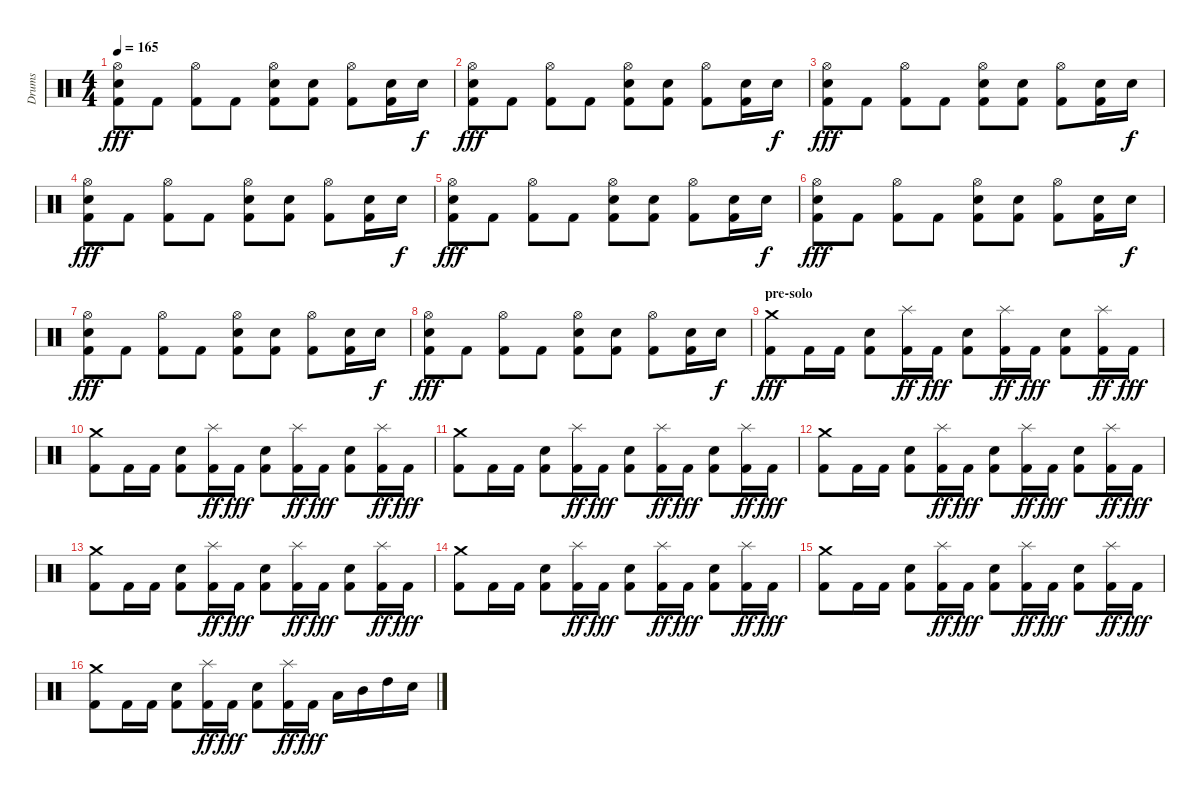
\track ("Drums" "Drums") {instrument percussion}
\staff {score}
\articulation defaults
\ts (4 4)
\tempo 165
\clef neutral
\ks c
("Hi-Hat (open)" "Electric Snare (hit)" "Kick (hit) 2").8{dy fff} "Kick (hit) 2".8 ("Hi-Hat (open)" "Kick (hit) 2").8 "Kick (hit) 2".8 ("Hi-Hat (open)" "Electric Snare (hit)" "Kick (hit) 2").8 ("Electric Snare (hit)" "Kick (hit) 2").8 ("Hi-Hat (open)" "Kick (hit) 2").8 ("Electric Snare (hit)" "Kick (hit) 2").16 "Electric Snare (hit)".16{dy f} |
("Hi-Hat (open)" "Electric Snare (hit)" "Kick (hit) 2").8{dy fff} "Kick (hit) 2".8 ("Hi-Hat (open)" "Kick (hit) 2").8 "Kick (hit) 2".8 ("Hi-Hat (open)" "Electric Snare (hit)" "Kick (hit) 2").8 ("Electric Snare (hit)" "Kick (hit) 2").8 ("Hi-Hat (open)" "Kick (hit) 2").8 ("Electric Snare (hit)" "Kick (hit) 2").16 "Electric Snare (hit)".16{dy f} |
("Hi-Hat (open)" "Electric Snare (hit)" "Kick (hit) 2").8{dy fff} "Kick (hit) 2".8 ("Hi-Hat (open)" "Kick (hit) 2").8 "Kick (hit) 2".8 ("Hi-Hat (open)" "Electric Snare (hit)" "Kick (hit) 2").8 ("Electric Snare (hit)" "Kick (hit) 2").8 ("Hi-Hat (open)" "Kick (hit) 2").8 ("Electric Snare (hit)" "Kick (hit) 2").16 "Electric Snare (hit)".16{dy f} |
("Hi-Hat (open)" "Electric Snare (hit)" "Kick (hit) 2").8{dy fff} "Kick (hit) 2".8 ("Hi-Hat (open)" "Kick (hit) 2").8 "Kick (hit) 2".8 ("Hi-Hat (open)" "Electric Snare (hit)" "Kick (hit) 2").8 ("Electric Snare (hit)" "Kick (hit) 2").8 ("Hi-Hat (open)" "Kick (hit) 2").8 ("Electric Snare (hit)" "Kick (hit) 2").16 "Electric Snare (hit)".16{dy f} |
("Hi-Hat (open)" "Electric Snare (hit)" "Kick (hit) 2").8{dy fff} "Kick (hit) 2".8 ("Hi-Hat (open)" "Kick (hit) 2").8 "Kick (hit) 2".8 ("Hi-Hat (open)" "Electric Snare (hit)" "Kick (hit) 2").8 ("Electric Snare (hit)" "Kick (hit) 2").8 ("Hi-Hat (open)" "Kick (hit) 2").8 ("Electric Snare (hit)" "Kick (hit) 2").16 "Electric Snare (hit)".16{dy f} |
("Hi-Hat (open)" "Electric Snare (hit)" "Kick (hit) 2").8{dy fff} "Kick (hit) 2".8 ("Hi-Hat (open)" "Kick (hit) 2").8 "Kick (hit) 2".8 ("Hi-Hat (open)" "Electric Snare (hit)" "Kick (hit) 2").8 ("Electric Snare (hit)" "Kick (hit) 2").8 ("Hi-Hat (open)" "Kick (hit) 2").8 ("Electric Snare (hit)" "Kick (hit) 2").16 "Electric Snare (hit)".16{dy f} |
("Hi-Hat (open)" "Electric Snare (hit)" "Kick (hit) 2").8{dy fff} "Kick (hit) 2".8 ("Hi-Hat (open)" "Kick (hit) 2").8 "Kick (hit) 2".8 ("Hi-Hat (open)" "Electric Snare (hit)" "Kick (hit) 2").8 ("Electric Snare (hit)" "Kick (hit) 2").8 ("Hi-Hat (open)" "Kick (hit) 2").8 ("Electric Snare (hit)" "Kick (hit) 2").16 "Electric Snare (hit)".16{dy f} |
("Hi-Hat (open)" "Electric Snare (hit)" "Kick (hit) 2").8{dy fff} "Kick (hit) 2".8 ("Hi-Hat (open)" "Kick (hit) 2").8 "Kick (hit) 2".8 ("Hi-Hat (open)" "Electric Snare (hit)" "Kick (hit) 2").8 ("Electric Snare (hit)" "Kick (hit) 2").8 ("Hi-Hat (open)" "Kick (hit) 2").8 ("Electric Snare (hit)" "Kick (hit) 2").16 "Electric Snare (hit)".16{dy f} |
\section ("" "pre-solo")
("Kick (hit) 2" "Crash medium (hit)").8{dy fff} "Kick (hit) 2".16 "Kick (hit) 2".16 ("Kick (hit) 2" "Electric Snare (hit)").8 ("Kick (hit) 2" "Splash (hit)").16{dy ff} "Kick (hit) 2".16{dy fff} ("Kick (hit) 2" "Electric Snare (hit)").8 ("Kick (hit) 2" "Splash (hit)").16{dy ff} "Kick (hit) 2".16{dy fff} ("Kick (hit) 2" "Electric Snare (hit)").8 ("Kick (hit) 2" "Splash (hit)").16{dy ff} "Kick (hit) 2".16{dy fff} |
("Kick (hit) 2" "Crash medium (hit)").8 "Kick (hit) 2".16 "Kick (hit) 2".16 ("Kick (hit) 2" "Electric Snare (hit)").8 ("Kick (hit) 2" "Splash (hit)").16{dy ff} "Kick (hit) 2".16{dy fff} ("Kick (hit) 2" "Electric Snare (hit)").8 ("Kick (hit) 2" "Splash (hit)").16{dy ff} "Kick (hit) 2".16{dy fff} ("Kick (hit) 2" "Electric Snare (hit)").8 ("Kick (hit) 2" "Splash (hit)").16{dy ff} "Kick (hit) 2".16{dy fff} |
("Kick (hit) 2" "Crash medium (hit)").8 "Kick (hit) 2".16 "Kick (hit) 2".16 ("Kick (hit) 2" "Electric Snare (hit)").8 ("Kick (hit) 2" "Splash (hit)").16{dy ff} "Kick (hit) 2".16{dy fff} ("Kick (hit) 2" "Electric Snare (hit)").8 ("Kick (hit) 2" "Splash (hit)").16{dy ff} "Kick (hit) 2".16{dy fff} ("Kick (hit) 2" "Electric Snare (hit)").8 ("Kick (hit) 2" "Splash (hit)").16{dy ff} "Kick (hit) 2".16{dy fff} |
("Kick (hit) 2" "Crash medium (hit)").8 "Kick (hit) 2".16 "Kick (hit) 2".16 ("Kick (hit) 2" "Electric Snare (hit)").8 ("Kick (hit) 2" "Splash (hit)").16{dy ff} "Kick (hit) 2".16{dy fff} ("Kick (hit) 2" "Electric Snare (hit)").8 ("Kick (hit) 2" "Splash (hit)").16{dy ff} "Kick (hit) 2".16{dy fff} ("Kick (hit) 2" "Electric Snare (hit)").8 ("Kick (hit) 2" "Splash (hit)").16{dy ff} "Kick (hit) 2".16{dy fff} |
("Kick (hit) 2" "Crash medium (hit)").8 "Kick (hit) 2".16 "Kick (hit) 2".16 ("Kick (hit) 2" "Electric Snare (hit)").8 ("Kick (hit) 2" "Splash (hit)").16{dy ff} "Kick (hit) 2".16{dy fff} ("Kick (hit) 2" "Electric Snare (hit)").8 ("Kick (hit) 2" "Splash (hit)").16{dy ff} "Kick (hit) 2".16{dy fff} ("Kick (hit) 2" "Electric Snare (hit)").8 ("Kick (hit) 2" "Splash (hit)").16{dy ff} "Kick (hit) 2".16{dy fff} |
("Kick (hit) 2" "Crash medium (hit)").8 "Kick (hit) 2".16 "Kick (hit) 2".16 ("Kick (hit) 2" "Electric Snare (hit)").8 ("Kick (hit) 2" "Splash (hit)").16{dy ff} "Kick (hit) 2".16{dy fff} ("Kick (hit) 2" "Electric Snare (hit)").8 ("Kick (hit) 2" "Splash (hit)").16{dy ff} "Kick (hit) 2".16{dy fff} ("Kick (hit) 2" "Electric Snare (hit)").8 ("Kick (hit) 2" "Splash (hit)").16{dy ff} "Kick (hit) 2".16{dy fff} |
("Kick (hit) 2" "Crash medium (hit)").8 "Kick (hit) 2".16 "Kick (hit) 2".16 ("Kick (hit) 2" "Electric Snare (hit)").8 ("Kick (hit) 2" "Splash (hit)").16{dy ff} "Kick (hit) 2".16{dy fff} ("Kick (hit) 2" "Electric Snare (hit)").8 ("Kick (hit) 2" "Splash (hit)").16{dy ff} "Kick (hit) 2".16{dy fff} ("Kick (hit) 2" "Electric Snare (hit)").8 ("Kick (hit) 2" "Splash (hit)").16{dy ff} "Kick (hit) 2".16{dy fff} |
("Kick (hit) 2" "Crash medium (hit)").8 "Kick (hit) 2".16 "Kick (hit) 2".16 ("Kick (hit) 2" "Electric Snare (hit)").8 ("Kick (hit) 2" "Splash (hit)").16{dy ff} "Kick (hit) 2".16{dy fff} ("Kick (hit) 2" "Electric Snare (hit)").8 ("Kick (hit) 2" "Splash (hit)").16{dy ff} "Kick (hit) 2".16{dy fff} "Low Tom (hit)".16 "Mid Tom (hit)".16 "High Tom (hit)".16 "Electric Snare (hit)".16
